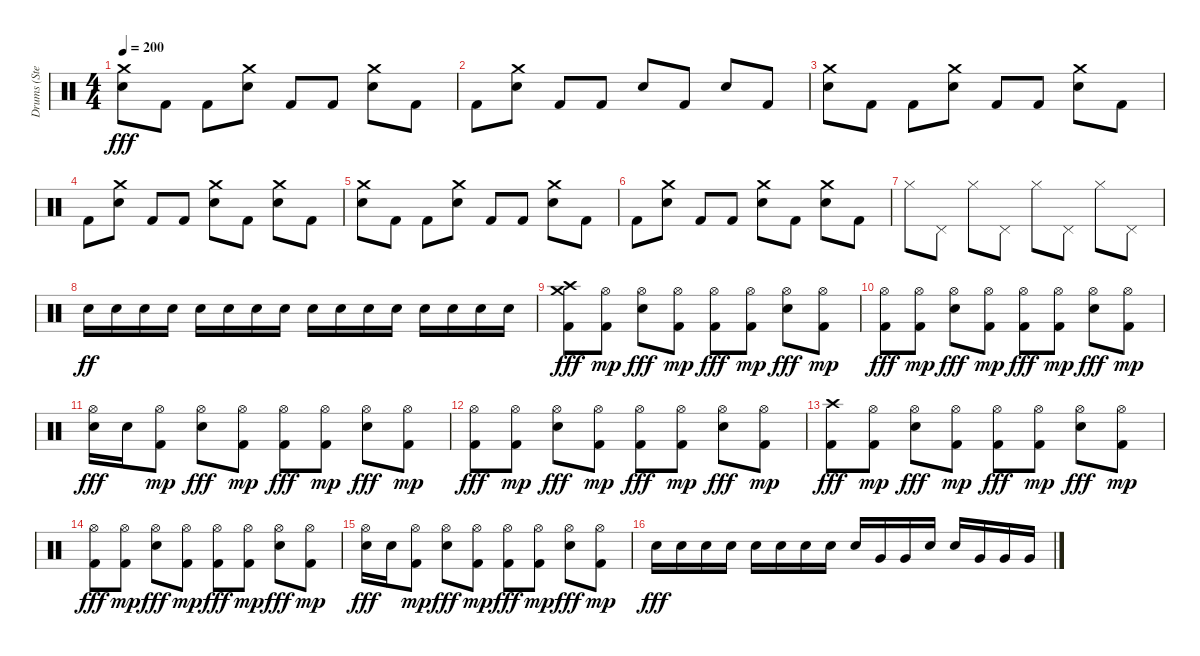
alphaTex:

\track ("Drums (Stevo32)" "Drums (Ste") {instrument percussion}
\staff {score}
\articulation defaults
\ts (4 4)
\tempo 200
\clef neutral
\ks c
("Electric Snare (hit)" "Crash medium (hit)").8{dy fff} "Kick (hit) 2".8 "Kick (hit) 2".8 ("Electric Snare (hit)" "Crash medium (hit)").8 "Kick (hit) 2".8 "Kick (hit) 2".8 ("Electric Snare (hit)" "Crash medium (hit)").8 "Kick (hit) 2".8 |
"Kick (hit) 2".8 ("Electric Snare (hit)" "Crash medium (hit)").8 "Kick (hit) 2".8 "Kick (hit) 2".8 "Electric Snare (hit)".8 "Kick (hit) 2".8 "Electric Snare (hit)".8 "Kick (hit) 2".8 |
("Electric Snare (hit)" "Crash medium (hit)").8 "Kick (hit) 2".8 "Kick (hit) 2".8 ("Electric Snare (hit)" "Crash medium (hit)").8 "Kick (hit) 2".8 "Kick (hit) 2".8 ("Electric Snare (hit)" "Crash medium (hit)").8 "Kick (hit) 2".8 |
"Kick (hit) 2".8 ("Electric Snare (hit)" "Crash medium (hit)").8 "Kick (hit) 2".8 "Kick (hit) 2".8 ("Electric Snare (hit)" "Crash medium (hit)").8 "Kick (hit) 2".8 ("Electric Snare (hit)" "Crash medium (hit)").8 "Kick (hit) 2".8 |
("Electric Snare (hit)" "Crash medium (hit)").8 "Kick (hit) 2".8 "Kick (hit) 2".8 ("Electric Snare (hit)" "Crash medium (hit)").8 "Kick (hit) 2".8 "Kick (hit) 2".8 ("Electric Snare (hit)" "Crash medium (hit)").8 "Kick (hit) 2".8 |
"Kick (hit) 2".8 ("Electric Snare (hit)" "Crash medium (hit)").8 "Kick (hit) 2".8 "Kick (hit) 2".8 ("Electric Snare (hit)" "Crash medium (hit)").8 "Kick (hit) 2".8 ("Electric Snare (hit)" "Crash medium (hit)").8 "Kick (hit) 2".8 |
"Hi-Hat (closed)".8 "Pedal Hi-Hat (hit)".8 "Hi-Hat (closed)".8 "Pedal Hi-Hat (hit)".8 "Hi-Hat (closed)".8 "Pedal Hi-Hat (hit)".8 "Hi-Hat (closed)".8 "Pedal Hi-Hat (hit)".8 |
"Electric Snare (hit)".16{dy ff} "Electric Snare (hit)".16 "Electric Snare (hit)".16 "Electric Snare (hit)".16 "Electric Snare (hit)".16 "Electric Snare (hit)".16 "Electric Snare (hit)".16 "Electric Snare (hit)".16 "Electric Snare (hit)".16 "Electric Snare (hit)".16 "Electric Snare (hit)".16 "Electric Snare (hit)".16 "Electric Snare (hit)".16 "Electric Snare (hit)".16 "Electric Snare (hit)".16 "Electric Snare (hit)".16 |
("Kick (hit) 2" "Crash high (hit)" "Crash medium (hit)").8{dy fff} ("Kick (hit) 2" "Hi-Hat (open)").8{dy mp} ("Electric Snare (hit)" "Hi-Hat (open)").8{dy fff} ("Kick (hit) 2" "Hi-Hat (open)").8{dy mp} ("Kick (hit) 2" "Hi-Hat (open)").8{dy fff} ("Kick (hit) 2" "Hi-Hat (open)").8{dy mp} ("Electric Snare (hit)" "Hi-Hat (open)").8{dy fff} ("Kick (hit) 2" "Hi-Hat (open)").8{dy mp} |
("Kick (hit) 2" "Hi-Hat (open)").8{dy fff} ("Kick (hit) 2" "Hi-Hat (open)").8{dy mp} ("Electric Snare (hit)" "Hi-Hat (open)").8{dy fff} ("Kick (hit) 2" "Hi-Hat (open)").8{dy mp} ("Kick (hit) 2" "Hi-Hat (open)").8{dy fff} ("Kick (hit) 2" "Hi-Hat (open)").8{dy mp} ("Electric Snare (hit)" "Hi-Hat (open)").8{dy fff} ("Kick (hit) 2" "Hi-Hat (open)").8{dy mp} |
("Electric Snare (hit)" "Hi-Hat (open)").16{dy fff} "Electric Snare (hit)".16 ("Kick (hit) 2" "Hi-Hat (open)").8{dy mp} ("Electric Snare (hit)" "Hi-Hat (open)").8{dy fff} ("Kick (hit) 2" "Hi-Hat (open)").8{dy mp} ("Kick (hit) 2" "Hi-Hat (open)").8{dy fff} ("Kick (hit) 2" "Hi-Hat (open)").8{dy mp} ("Electric Snare (hit)" "Hi-Hat (open)").8{dy fff} ("Kick (hit) 2" "Hi-Hat (open)").8{dy mp} |
("Kick (hit) 2" "Hi-Hat (open)").8{dy fff} ("Kick (hit) 2" "Hi-Hat (open)").8{dy mp} ("Electric Snare (hit)" "Hi-Hat (open)").8{dy fff} ("Kick (hit) 2" "Hi-Hat (open)").8{dy mp} ("Kick (hit) 2" "Hi-Hat (open)").8{dy fff} ("Kick (hit) 2" "Hi-Hat (open)").8{dy mp} ("Electric Snare (hit)" "Hi-Hat (open)").8{dy fff} ("Kick (hit) 2" "Hi-Hat (open)").8{dy mp} |
("Kick (hit) 2" "Crash high (hit)").8{dy fff} ("Kick (hit) 2" "Hi-Hat (open)").8{dy mp} ("Electric Snare (hit)" "Hi-Hat (open)").8{dy fff} ("Kick (hit) 2" "Hi-Hat (open)").8{dy mp} ("Kick (hit) 2" "Hi-Hat (open)").8{dy fff} ("Kick (hit) 2" "Hi-Hat (open)").8{dy mp} ("Electric Snare (hit)" "Hi-Hat (open)").8{dy fff} ("Kick (hit) 2" "Hi-Hat (open)").8{dy mp} |
("Kick (hit) 2" "Hi-Hat (open)").8{dy fff} ("Kick (hit) 2" "Hi-Hat (open)").8{dy mp} ("Electric Snare (hit)" "Hi-Hat (open)").8{dy fff} ("Kick (hit) 2" "Hi-Hat (open)").8{dy mp} ("Kick (hit) 2" "Hi-Hat (open)").8{dy fff} ("Kick (hit) 2" "Hi-Hat (open)").8{dy mp} ("Electric Snare (hit)" "Hi-Hat (open)").8{dy fff} ("Kick (hit) 2" "Hi-Hat (open)").8{dy mp} |
("Electric Snare (hit)" "Hi-Hat (open)").16{dy fff} "Electric Snare (hit)".16 ("Kick (hit) 2" "Hi-Hat (open)").8{dy mp} ("Electric Snare (hit)" "Hi-Hat (open)").8{dy fff} ("Kick (hit) 2" "Hi-Hat (open)").8{dy mp} ("Kick (hit) 2" "Hi-Hat (open)").8{dy fff} ("Kick (hit) 2" "Hi-Hat (open)").8{dy mp} ("Electric Snare (hit)" "Hi-Hat (open)").8{dy fff} ("Kick (hit) 2" "Hi-Hat (open)").8{dy mp} |
"Electric Snare (hit)".16{dy fff} "Electric Snare (hit)".16 "Electric Snare (hit)".16 "Electric Snare (hit)".16 "Electric Snare (hit)".16 "Electric Snare (hit)".16 "Electric Snare (hit)".16 "Electric Snare (hit)".16 "Electric Snare (hit)".16 "Very Low Tom (hit)".16 "Very Low Tom (hit)".16 "Electric Snare (hit)".16 "Electric Snare (hit)".16 "Very Low Tom (hit)".16 "Very Low Tom (hit)".16 "Very Low Tom (hit)".16
